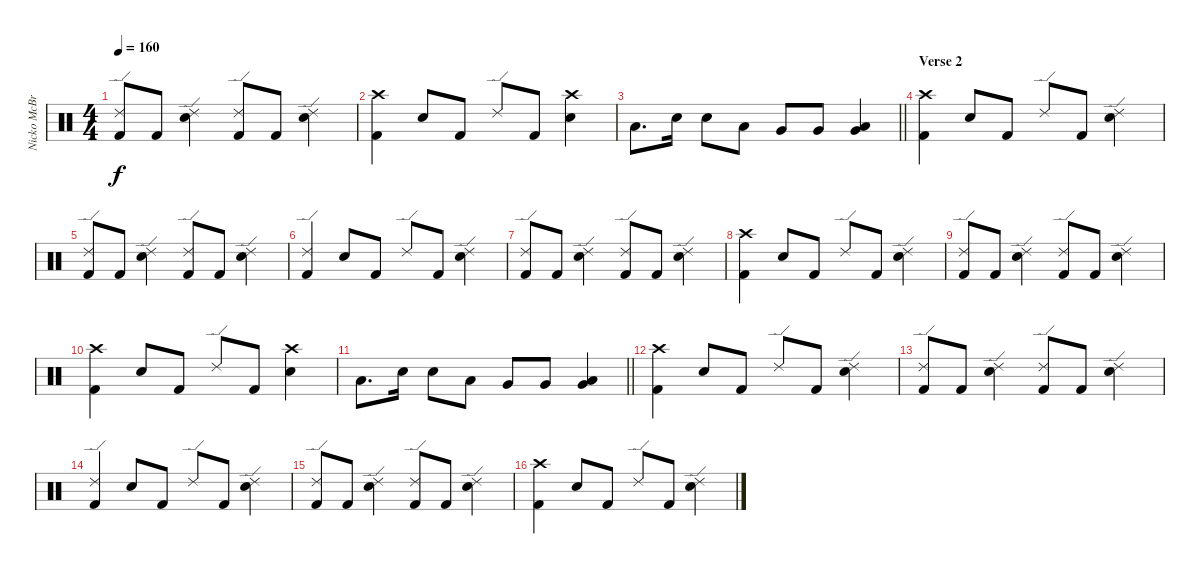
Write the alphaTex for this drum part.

\track ("Nicko McBrain" "Nicko McBr") {instrument percussion}
\staff {score}
\articulation defaults
\ts (4 4)
\tempo 160
\clef neutral
\ks c
("Ride (edge) 2" "Kick (hit) 2").8{dy f} "Kick (hit) 2".8 ("Ride (edge) 2" "Electric Snare (hit)").4 ("Ride (edge) 2" "Kick (hit) 2").8 "Kick (hit) 2".8 ("Ride (edge) 2" "Electric Snare (hit)").4 |
("Crash high (hit)" "Kick (hit) 2").4 "Electric Snare (hit)".8 "Kick (hit) 2".8 "Ride (edge) 2".8 "Kick (hit) 2".8 ("Crash high (hit)" "Electric Snare (hit)").4 |
\barLineRight lightlight "Low Tom (hit)".8{d} "Electric Snare (hit)".16 "Electric Snare (hit)".8 "Low Tom (hit)".8 "Very Low Tom (hit)".8 "Very Low Tom (hit)".8
("Very Low Tom (hit)" "Low Floor Tom (hit)").4 |
\section ("" "Verse 2")
("Crash high (hit)" "Kick (hit) 2").4 "Electric Snare (hit)".8 "Kick (hit) 2".8 "Ride (edge) 2".8 "Kick (hit) 2".8 ("Ride (edge) 2" "Electric Snare (hit)").4 |
("Ride (edge) 2" "Kick (hit) 2").8 "Kick (hit) 2".8 ("Ride (edge) 2" "Electric Snare (hit)").4 ("Ride (edge) 2" "Kick (hit) 2").8 "Kick (hit) 2".8 ("Ride (edge) 2" "Electric Snare (hit)").4 |
("Ride (edge) 2" "Kick (hit) 2").4 "Electric Snare (hit)".8 "Kick (hit) 2".8 "Ride (edge) 2".8 "Kick (hit) 2".8 ("Ride (edge) 2" "Electric Snare (hit)").4 |
("Ride (edge) 2" "Kick (hit) 2").8 "Kick (hit) 2".8 ("Ride (edge) 2" "Electric Snare (hit)").4 ("Ride (edge) 2" "Kick (hit) 2").8 "Kick (hit) 2".8 ("Ride (edge) 2" "Electric Snare (hit)").4 |
("Crash high (hit)" "Kick (hit) 2").4 "Electric Snare (hit)".8 "Kick (hit) 2".8 "Ride (edge) 2".8 "Kick (hit) 2".8 ("Ride (edge) 2" "Electric Snare (hit)").4 |
("Ride (edge) 2" "Kick (hit) 2").8 "Kick (hit) 2".8 ("Ride (edge) 2" "Electric Snare (hit)").4 ("Ride (edge) 2" "Kick (hit) 2").8 "Kick (hit) 2".8 ("Ride (edge) 2" "Electric Snare (hit)").4 |
("Crash high (hit)" "Kick (hit) 2").4 "Electric Snare (hit)".8 "Kick (hit) 2".8 "Ride (edge) 2".8 "Kick (hit) 2".8 ("Crash high (hit)" "Electric Snare (hit)").4 |
\barLineRight lightlight "Low Tom (hit)".8{d} "Electric Snare (hit)".16 "Electric Snare (hit)".8 "Low Tom (hit)".8 "Very Low Tom (hit)".8 "Very Low Tom (hit)".8
("Very Low Tom (hit)" "Low Floor Tom (hit)").4 |
("Crash high (hit)" "Kick (hit) 2").4 "Electric Snare (hit)".8 "Kick (hit) 2".8 "Ride (edge) 2".8 "Kick (hit) 2".8 ("Ride (edge) 2" "Electric Snare (hit)").4 |
("Ride (edge) 2" "Kick (hit) 2").8 "Kick (hit) 2".8 ("Ride (edge) 2" "Electric Snare (hit)").4 ("Ride (edge) 2" "Kick (hit) 2").8 "Kick (hit) 2".8 ("Ride (edge) 2" "Electric Snare (hit)").4 |
("Ride (edge) 2" "Kick (hit) 2").4 "Electric Snare (hit)".8 "Kick (hit) 2".8 "Ride (edge) 2".8 "Kick (hit) 2".8 ("Ride (edge) 2" "Electric Snare (hit)").4 |
("Ride (edge) 2" "Kick (hit) 2").8 "Kick (hit) 2".8 ("Ride (edge) 2" "Electric Snare (hit)").4 ("Ride (edge) 2" "Kick (hit) 2").8 "Kick (hit) 2".8 ("Ride (edge) 2" "Electric Snare (hit)").4 |
("Crash high (hit)" "Kick (hit) 2").4 "Electric Snare (hit)".8 "Kick (hit) 2".8 "Ride (edge) 2".8 "Kick (hit) 2".8 ("Ride (edge) 2" "Electric Snare (hit)").4
